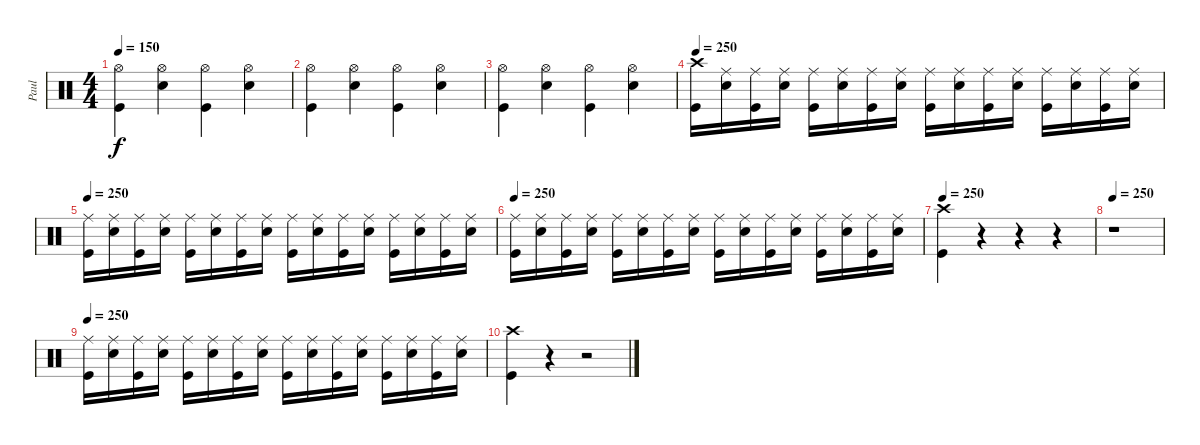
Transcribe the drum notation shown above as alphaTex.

\track ("Paul" "Paul") {instrument percussion}
\staff {score}
\articulation defaults
\ts (4 4)
\tempo 150
\clef neutral
\ks c
("Hi-Hat (open)" "Kick (hit)").4{dy f} ("Hi-Hat (open)" "Electric Snare (hit)").4 ("Hi-Hat (open)" "Kick (hit)").4 ("Hi-Hat (open)" "Electric Snare (hit)").4 |
("Hi-Hat (open)" "Kick (hit)").4 ("Hi-Hat (open)" "Electric Snare (hit)").4 ("Hi-Hat (open)" "Kick (hit)").4 ("Hi-Hat (open)" "Electric Snare (hit)").4 |
("Hi-Hat (open)" "Kick (hit)").4 ("Hi-Hat (open)" "Electric Snare (hit)").4 ("Hi-Hat (open)" "Kick (hit)").4 ("Hi-Hat (open)" "Electric Snare (hit)").4 |
\tempo 250
("Crash high (hit)" "Kick (hit)").16 ("Ride (middle)" "Snare (hit) 2").16 ("Ride (middle)" "Kick (hit)").16 ("Ride (middle)" "Snare (hit) 2").16 ("Ride (middle)" "Kick (hit)").16 ("Ride (middle)" "Snare (hit) 2").16 ("Ride (middle)" "Kick (hit)").16 ("Ride (middle)" "Snare (hit) 2").16 ("Ride (middle)" "Kick (hit)").16 ("Ride (middle)" "Snare (hit) 2").16 ("Ride (middle)" "Kick (hit)").16 ("Ride (middle)" "Snare (hit) 2").16 ("Ride (middle)" "Kick (hit)").16 ("Ride (middle)" "Snare (hit) 2").16 ("Ride (middle)" "Kick (hit)").16 ("Ride (middle)" "Snare (hit) 2").16 |
\tempo 250
("Ride (middle)" "Kick (hit)").16 ("Ride (middle)" "Snare (hit) 2").16 ("Ride (middle)" "Kick (hit)").16 ("Ride (middle)" "Snare (hit) 2").16 ("Ride (middle)" "Kick (hit)").16 ("Ride (middle)" "Snare (hit) 2").16 ("Ride (middle)" "Kick (hit)").16 ("Ride (middle)" "Snare (hit) 2").16 ("Ride (middle)" "Kick (hit)").16 ("Ride (middle)" "Snare (hit) 2").16 ("Ride (middle)" "Kick (hit)").16 ("Ride (middle)" "Snare (hit) 2").16 ("Ride (middle)" "Kick (hit)").16 ("Ride (middle)" "Snare (hit) 2").16 ("Ride (middle)" "Kick (hit)").16 ("Ride (middle)" "Snare (hit) 2").16 |
\tempo 250
("Ride (middle)" "Kick (hit)").16 ("Ride (middle)" "Snare (hit) 2").16 ("Ride (middle)" "Kick (hit)").16 ("Ride (middle)" "Snare (hit) 2").16 ("Ride (middle)" "Kick (hit)").16 ("Ride (middle)" "Snare (hit) 2").16 ("Ride (middle)" "Kick (hit)").16 ("Ride (middle)" "Snare (hit) 2").16 ("Ride (middle)" "Kick (hit)").16 ("Ride (middle)" "Snare (hit) 2").16 ("Ride (middle)" "Kick (hit)").16 ("Ride (middle)" "Snare (hit) 2").16 ("Ride (middle)" "Kick (hit)").16 ("Ride (middle)" "Snare (hit) 2").16 ("Ride (middle)" "Kick (hit)").16 ("Ride (middle)" "Snare (hit) 2").16 |
\tempo 250
("Crash high (hit)" "Kick (hit)").4 r.4 r.4 r.4 |
\tempo 250
r.1 |
\tempo 250
("Ride (middle)" "Kick (hit)").16 ("Ride (middle)" "Snare (hit) 2").16 ("Ride (middle)" "Kick (hit)").16 ("Ride (middle)" "Snare (hit) 2").16 ("Ride (middle)" "Kick (hit)").16 ("Ride (middle)" "Snare (hit) 2").16 ("Ride (middle)" "Kick (hit)").16 ("Ride (middle)" "Snare (hit) 2").16 ("Ride (middle)" "Kick (hit)").16 ("Ride (middle)" "Snare (hit) 2").16 ("Ride (middle)" "Kick (hit)").16 ("Ride (middle)" "Snare (hit) 2").16 ("Ride (middle)" "Kick (hit)").16 ("Ride (middle)" "Snare (hit) 2").16 ("Ride (middle)" "Kick (hit)").16 ("Ride (middle)" "Snare (hit) 2").16 |
("Crash high (hit)" "Kick (hit)").4 r.4 r.2
